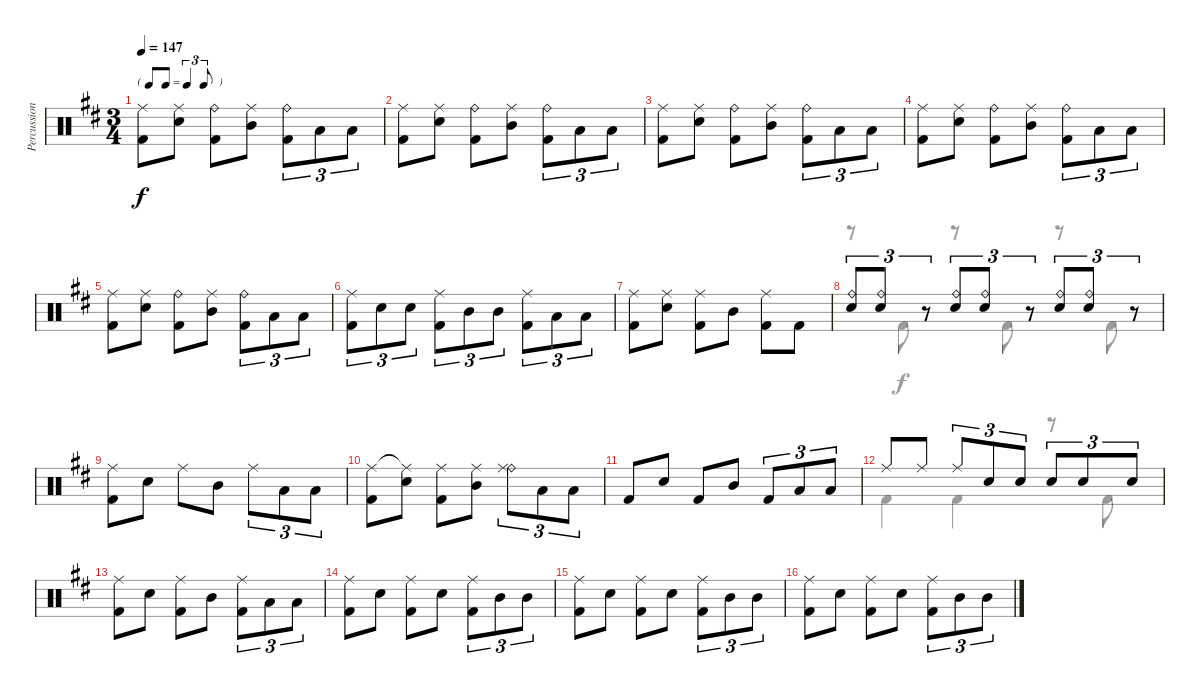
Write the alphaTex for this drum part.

\track ("Percussion" "Percussion") {instrument percussion}
\staff {score}
\articulation defaults
\voice
\ts (3 4)
\tf triplet8th
\tempo 147
\clef neutral
\ks d
("Ride (middle)" "Kick (hit) 2").8{dy f} ("Ride (middle)" "Snare (hit) 2").8 ("Ride (bell)" "Kick (hit) 2").8 ("Ride (middle)" "Mid Tom (hit)").8 ("Ride (bell)" "Kick (hit) 2").8{tu (3 2)} "Low Floor Tom (hit)".8{tu (3 2)} "Low Floor Tom (hit)".8{tu (3 2)} |
("Ride (middle)" "Kick (hit) 2").8 ("Ride (middle)" "Snare (hit) 2").8 ("Ride (bell)" "Kick (hit) 2").8 ("Ride (middle)" "Mid Tom (hit)").8 ("Ride (bell)" "Kick (hit) 2").8{tu (3 2)} "Low Floor Tom (hit)".8{tu (3 2)} "Low Floor Tom (hit)".8{tu (3 2)} |
("Ride (middle)" "Kick (hit) 2").8 ("Ride (middle)" "Snare (hit) 2").8 ("Ride (bell)" "Kick (hit) 2").8 ("Ride (middle)" "Mid Tom (hit)").8 ("Ride (bell)" "Kick (hit) 2").8{tu (3 2)} "Low Floor Tom (hit)".8{tu (3 2)} "Low Floor Tom (hit)".8{tu (3 2)} |
("Ride (middle)" "Kick (hit) 2").8 ("Ride (middle)" "Snare (hit) 2").8 ("Ride (bell)" "Kick (hit) 2").8 ("Ride (middle)" "Mid Tom (hit)").8 ("Ride (bell)" "Kick (hit) 2").8{tu (3 2)} "Low Floor Tom (hit)".8{tu (3 2)} "Low Floor Tom (hit)".8{tu (3 2)} |
("Ride (middle)" "Kick (hit) 2").8 ("Ride (middle)" "Snare (hit) 2").8 ("Ride (bell)" "Kick (hit) 2").8 ("Ride (middle)" "Mid Tom (hit)").8 ("Ride (bell)" "Kick (hit) 2").8{tu (3 2)} "Low Floor Tom (hit)".8{tu (3 2)} "Low Floor Tom (hit)".8{tu (3 2)} |
("Ride (middle)" "Kick (hit) 2").8{tu (3 2)} "Snare (hit) 2".8{tu (3 2)} "Snare (hit) 2".8{tu (3 2)} ("Ride (middle)" "Kick (hit) 2").8{tu (3 2)} "Mid Tom (hit)".8{tu (3 2)} "Mid Tom (hit)".8{tu (3 2)} ("Ride (middle)" "Kick (hit) 2").8{tu (3 2)} "Low Tom (hit)".8{tu (3 2)} "Low Tom (hit)".8{tu (3 2)} |
("Ride (middle)" "Kick (hit) 2").8 ("Ride (middle)" "Snare (hit) 2").8 ("Ride (middle)" "Kick (hit) 2").8 "Mid Tom (hit)".8 ("Ride (middle)" "Kick (hit) 2").8 "Kick (hit) 2".8 |
("Ride (bell)" "Snare (hit) 2").8{tu (3 2)} ("Ride (bell)" "Snare (hit) 2").8{tu (3 2)} r.8{tu (3 2)} ("Ride (bell)" "Snare (hit) 2").8{tu (3 2)} ("Ride (bell)" "Snare (hit) 2").8{tu (3 2)} r.8{tu (3 2)} ("Ride (bell)" "Snare (hit) 2").8{tu (3 2)} ("Ride (bell)" "Snare (hit) 2").8{tu (3 2)} r.8{tu (3 2)} |
("Ride (middle)" "Kick (hit) 2").8 "Snare (hit) 2".8 "Ride (middle)".8 "Mid Tom (hit)".8 "Ride (middle)".8{tu (3 2)} "Low Floor Tom (hit)".8{tu (3 2)} "Low Floor Tom (hit)".8{tu (3 2)} |
("Ride (middle)" "Kick (hit) 2").8 ("Ride (middle)"{t} "Snare (hit) 2").8 ("Ride (middle)" "Kick (hit) 2").8 ("Ride (middle)" "Mid Tom (hit)").8 ("Ride (bell)" "Ride (middle)").8{tu (3 2)} "Low Floor Tom (hit)".8{tu (3 2)} "Low Floor Tom (hit)".8{tu (3 2)} |
"Kick (hit) 2".8 "Snare (hit) 2".8 "Kick (hit) 2".8 "Mid Tom (hit)".8 "Kick (hit) 2".8{tu (3 2)} "Low Floor Tom (hit)".8{tu (3 2)} "Low Floor Tom (hit)".8{tu (3 2)} |
"Ride (middle)".8 "Ride (middle)".8 "Ride (middle)".8{tu (3 2)} "Snare (hit) 2".8{tu (3 2)} "Snare (hit) 2".8{tu (3 2)} "Snare (hit) 2".8{tu (3 2)} "Snare (hit) 2".8{tu (3 2)} "Snare (hit) 2".8{tu (3 2)} |
("Ride (middle)" "Kick (hit) 2").8 "Snare (hit) 2".8 ("Ride (middle)" "Kick (hit) 2").8 "Mid Tom (hit)".8 ("Ride (middle)" "Kick (hit) 2").8{tu (3 2)} "Low Floor Tom (hit)".8{tu (3 2)} "Low Floor Tom (hit)".8{tu (3 2)} |
("Ride (middle)" "Kick (hit) 2").8 "Snare (hit) 2".8 ("Ride (middle)" "Kick (hit) 2").8 "Snare (hit) 2".8 ("Ride (middle)" "Kick (hit) 2").8{tu (3 2)} "Mid Tom (hit)".8{tu (3 2)} "Mid Tom (hit)".8{tu (3 2)} |
("Ride (middle)" "Kick (hit) 2").8 "Snare (hit) 2".8 ("Ride (middle)" "Kick (hit) 2").8 "Snare (hit) 2".8 ("Ride (middle)" "Kick (hit) 2").8{tu (3 2)} "Mid Tom (hit)".8{tu (3 2)} "Mid Tom (hit)".8{tu (3 2)} |
("Ride (middle)" "Kick (hit) 2").8 "Snare (hit) 2".8 ("Ride (middle)" "Kick (hit) 2").8 "Snare (hit) 2".8 ("Ride (middle)" "Kick (hit) 2").8{tu (3 2)} "Mid Tom (hit)".8{tu (3 2)} "Mid Tom (hit)".8{tu (3 2)}
\voice
\clef neutral
\ottava regular
\simile none
\ks d
|
|
|
|
|
|
|
r.8 "Kick (hit) 2".8 r.8 "Kick (hit) 2".8 r.8 "Kick (hit) 2".8 |
|
|
|
"Kick (hit) 2".4 "Kick (hit) 2".4 r.8 "Kick (hit) 2".8 |
|
|
|
